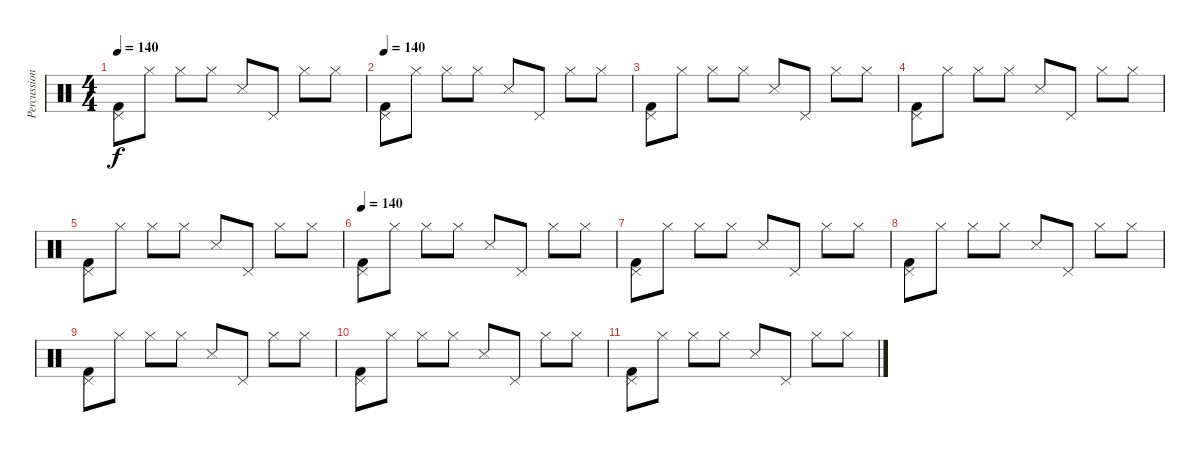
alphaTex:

\track ("Percussion" "Percussion") {instrument percussion}
\staff {score}
\articulation defaults
\ts (4 4)
\tempo 140
\clef neutral
\ks c
("Pedal Hi-Hat (hit)" "Kick (hit) 2").8{dy f volume 9} "Hi-Hat (closed)".8 "Hi-Hat (closed)".8 "Hi-Hat (closed)".8 "Snare (side stick) 3".8{volume 13} "Pedal Hi-Hat (hit)".8{volume 9} "Hi-Hat (closed)".8 "Hi-Hat (closed)".8 |
\tempo 140
("Pedal Hi-Hat (hit)" "Kick (hit) 2").8{volume 9} "Hi-Hat (closed)".8 "Hi-Hat (closed)".8 "Hi-Hat (closed)".8 "Snare (side stick) 3".8{volume 13} "Pedal Hi-Hat (hit)".8{volume 9} "Hi-Hat (closed)".8 "Hi-Hat (closed)".8 |
("Pedal Hi-Hat (hit)" "Kick (hit) 2").8{volume 9} "Hi-Hat (closed)".8 "Hi-Hat (closed)".8 "Hi-Hat (closed)".8 "Snare (side stick) 3".8{volume 13} "Pedal Hi-Hat (hit)".8{volume 9} "Hi-Hat (closed)".8 "Hi-Hat (closed)".8 |
("Pedal Hi-Hat (hit)" "Kick (hit) 2").8{volume 9} "Hi-Hat (closed)".8 "Hi-Hat (closed)".8 "Hi-Hat (closed)".8 "Snare (side stick) 3".8{volume 13} "Pedal Hi-Hat (hit)".8{volume 9} "Hi-Hat (closed)".8 "Hi-Hat (closed)".8 |
("Pedal Hi-Hat (hit)" "Kick (hit) 2").8{volume 9} "Hi-Hat (closed)".8 "Hi-Hat (closed)".8 "Hi-Hat (closed)".8 "Snare (side stick) 3".8{volume 13} "Pedal Hi-Hat (hit)".8{volume 9} "Hi-Hat (closed)".8 "Hi-Hat (closed)".8 |
\tempo 140
("Pedal Hi-Hat (hit)" "Kick (hit) 2").8{volume 7} "Hi-Hat (closed)".8 "Hi-Hat (closed)".8 "Hi-Hat (closed)".8 "Snare (side stick) 3".8 "Pedal Hi-Hat (hit)".8 "Hi-Hat (closed)".8 "Hi-Hat (closed)".8 |
("Pedal Hi-Hat (hit)" "Kick (hit) 2").8{volume 5} "Hi-Hat (closed)".8 "Hi-Hat (closed)".8 "Hi-Hat (closed)".8 "Snare (side stick) 3".8 "Pedal Hi-Hat (hit)".8 "Hi-Hat (closed)".8 "Hi-Hat (closed)".8 |
("Pedal Hi-Hat (hit)" "Kick (hit) 2").8{volume 3} "Hi-Hat (closed)".8 "Hi-Hat (closed)".8 "Hi-Hat (closed)".8 "Snare (side stick) 3".8 "Pedal Hi-Hat (hit)".8 "Hi-Hat (closed)".8 "Hi-Hat (closed)".8 |
("Pedal Hi-Hat (hit)" "Kick (hit) 2").8{volume 1} "Hi-Hat (closed)".8 "Hi-Hat (closed)".8 "Hi-Hat (closed)".8 "Snare (side stick) 3".8 "Pedal Hi-Hat (hit)".8 "Hi-Hat (closed)".8 "Hi-Hat (closed)".8 |
("Pedal Hi-Hat (hit)" "Kick (hit) 2").8{volume 1} "Hi-Hat (closed)".8 "Hi-Hat (closed)".8 "Hi-Hat (closed)".8 "Snare (side stick) 3".8 "Pedal Hi-Hat (hit)".8 "Hi-Hat (closed)".8 "Hi-Hat (closed)".8 |
("Pedal Hi-Hat (hit)" "Kick (hit) 2").8{volume 0} "Hi-Hat (closed)".8 "Hi-Hat (closed)".8 "Hi-Hat (closed)".8 "Snare (side stick) 3".8 "Pedal Hi-Hat (hit)".8 "Hi-Hat (closed)".8 "Hi-Hat (closed)".8
